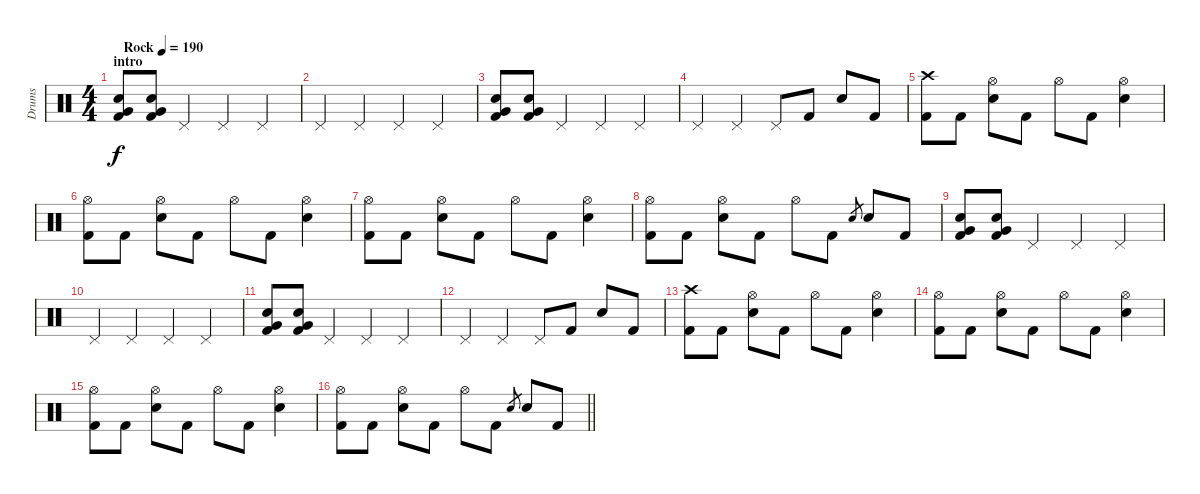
\track ("Drums" "Drums") {instrument percussion}
\staff {score}
\articulation defaults
\ts (4 4)
\section ("" "intro")
\tempo (190 "Rock")
\clef neutral
\ks c
("Snare (hit) 2" "Very Low Tom (hit)" "Kick (hit) 2").8{dy f} ("Snare (hit) 2" "Very Low Tom (hit)" "Kick (hit) 2").8 "Pedal Hi-Hat (hit)".4 "Pedal Hi-Hat (hit)".4 "Pedal Hi-Hat (hit)".4 |
"Pedal Hi-Hat (hit)".4 "Pedal Hi-Hat (hit)".4 "Pedal Hi-Hat (hit)".4 "Pedal Hi-Hat (hit)".4 |
("Snare (hit) 2" "Very Low Tom (hit)" "Kick (hit) 2").8 ("Snare (hit) 2" "Very Low Tom (hit)" "Kick (hit) 2").8 "Pedal Hi-Hat (hit)".4 "Pedal Hi-Hat (hit)".4 "Pedal Hi-Hat (hit)".4 |
"Pedal Hi-Hat (hit)".4 "Pedal Hi-Hat (hit)".4 "Pedal Hi-Hat (hit)".8 "Kick (hit) 2".8 "Snare (hit) 2".8 "Kick (hit) 2".8 |
("Crash high (hit)" "Kick (hit) 2").8 "Kick (hit) 2".8 ("Hi-Hat (open)" "Snare (hit) 2").8 "Kick (hit) 2".8 "Hi-Hat (open)".8 "Kick (hit) 2".8 ("Hi-Hat (open)" "Snare (hit) 2").4 |
("Hi-Hat (open)" "Kick (hit) 2").8 "Kick (hit) 2".8 ("Hi-Hat (open)" "Snare (hit) 2").8 "Kick (hit) 2".8 "Hi-Hat (open)".8 "Kick (hit) 2".8 ("Hi-Hat (open)" "Snare (hit) 2").4 |
("Hi-Hat (open)" "Kick (hit) 2").8 "Kick (hit) 2".8 ("Hi-Hat (open)" "Snare (hit) 2").8 "Kick (hit) 2".8 "Hi-Hat (open)".8 "Kick (hit) 2".8 ("Hi-Hat (open)" "Snare (hit) 2").4 |
("Hi-Hat (open)" "Kick (hit) 2").8 "Kick (hit) 2".8 ("Hi-Hat (open)" "Snare (hit) 2").8 "Kick (hit) 2".8 "Hi-Hat (open)".8 "Kick (hit) 2".8 "Snare (hit) 2".8{gr} "Snare (hit) 2".8 "Kick (hit) 2".8 |
("Snare (hit) 2" "Very Low Tom (hit)" "Kick (hit) 2").8 ("Snare (hit) 2" "Very Low Tom (hit)" "Kick (hit) 2").8 "Pedal Hi-Hat (hit)".4 "Pedal Hi-Hat (hit)".4 "Pedal Hi-Hat (hit)".4 |
"Pedal Hi-Hat (hit)".4 "Pedal Hi-Hat (hit)".4 "Pedal Hi-Hat (hit)".4 "Pedal Hi-Hat (hit)".4 |
("Snare (hit) 2" "Very Low Tom (hit)" "Kick (hit) 2").8 ("Snare (hit) 2" "Very Low Tom (hit)" "Kick (hit) 2").8 "Pedal Hi-Hat (hit)".4 "Pedal Hi-Hat (hit)".4 "Pedal Hi-Hat (hit)".4 |
"Pedal Hi-Hat (hit)".4 "Pedal Hi-Hat (hit)".4 "Pedal Hi-Hat (hit)".8 "Kick (hit) 2".8 "Snare (hit) 2".8 "Kick (hit) 2".8 |
("Crash high (hit)" "Kick (hit) 2").8 "Kick (hit) 2".8 ("Hi-Hat (open)" "Snare (hit) 2").8 "Kick (hit) 2".8 "Hi-Hat (open)".8 "Kick (hit) 2".8 ("Hi-Hat (open)" "Snare (hit) 2").4 |
("Hi-Hat (open)" "Kick (hit) 2").8 "Kick (hit) 2".8 ("Hi-Hat (open)" "Snare (hit) 2").8 "Kick (hit) 2".8 "Hi-Hat (open)".8 "Kick (hit) 2".8 ("Hi-Hat (open)" "Snare (hit) 2").4 |
("Hi-Hat (open)" "Kick (hit) 2").8 "Kick (hit) 2".8 ("Hi-Hat (open)" "Snare (hit) 2").8 "Kick (hit) 2".8 "Hi-Hat (open)".8 "Kick (hit) 2".8 ("Hi-Hat (open)" "Snare (hit) 2").4 |
\barLineRight lightlight
("Hi-Hat (open)" "Kick (hit) 2").8 "Kick (hit) 2".8 ("Hi-Hat (open)" "Snare (hit) 2").8 "Kick (hit) 2".8 "Hi-Hat (open)".8 "Kick (hit) 2".8 "Snare (hit) 2".8{gr} "Snare (hit) 2".8 "Kick (hit) 2".8
